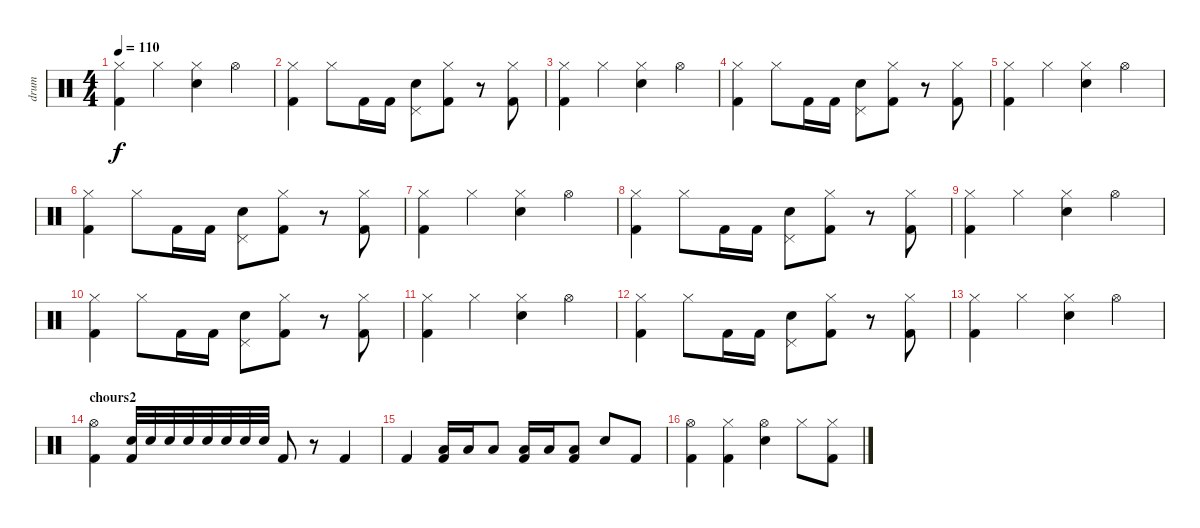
\track ("drum" "drum") {instrument percussion}
\staff {score}
\articulation defaults
\ts (4 4)
\tempo 110
\clef neutral
\ks c
("Hi-Hat (closed)" "Kick (hit) 2").4{dy f} "Hi-Hat (closed)".4 ("Hi-Hat (closed)" "Electric Snare (hit)").4 "Hi-Hat (open)".4 |
("Hi-Hat (closed)" "Kick (hit) 2").4 "Hi-Hat (closed)".8 "Kick (hit) 2".16 "Kick (hit) 2".16 ("Pedal Hi-Hat (hit)" "Electric Snare (hit)").8 ("Hi-Hat (closed)" "Kick (hit) 2").8 r.8 ("Hi-Hat (closed)" "Kick (hit) 2").8 |
("Hi-Hat (closed)" "Kick (hit) 2").4 "Hi-Hat (closed)".4 ("Hi-Hat (closed)" "Electric Snare (hit)").4 "Hi-Hat (open)".4 |
("Hi-Hat (closed)" "Kick (hit) 2").4 "Hi-Hat (closed)".8 "Kick (hit) 2".16 "Kick (hit) 2".16 ("Pedal Hi-Hat (hit)" "Electric Snare (hit)").8 ("Hi-Hat (closed)" "Kick (hit) 2").8 r.8 ("Hi-Hat (closed)" "Kick (hit) 2").8 |
("Hi-Hat (closed)" "Kick (hit) 2").4 "Hi-Hat (closed)".4 ("Hi-Hat (closed)" "Electric Snare (hit)").4 "Hi-Hat (open)".4 |
("Hi-Hat (closed)" "Kick (hit) 2").4 "Hi-Hat (closed)".8 "Kick (hit) 2".16 "Kick (hit) 2".16 ("Pedal Hi-Hat (hit)" "Electric Snare (hit)").8 ("Hi-Hat (closed)" "Kick (hit) 2").8 r.8 ("Hi-Hat (closed)" "Kick (hit) 2").8 |
("Hi-Hat (closed)" "Kick (hit) 2").4 "Hi-Hat (closed)".4 ("Hi-Hat (closed)" "Electric Snare (hit)").4 "Hi-Hat (open)".4 |
("Hi-Hat (closed)" "Kick (hit) 2").4 "Hi-Hat (closed)".8 "Kick (hit) 2".16 "Kick (hit) 2".16 ("Pedal Hi-Hat (hit)" "Electric Snare (hit)").8 ("Hi-Hat (closed)" "Kick (hit) 2").8 r.8 ("Hi-Hat (closed)" "Kick (hit) 2").8 |
("Hi-Hat (closed)" "Kick (hit) 2").4 "Hi-Hat (closed)".4 ("Hi-Hat (closed)" "Electric Snare (hit)").4 "Hi-Hat (open)".4 |
("Hi-Hat (closed)" "Kick (hit) 2").4 "Hi-Hat (closed)".8 "Kick (hit) 2".16 "Kick (hit) 2".16 ("Pedal Hi-Hat (hit)" "Electric Snare (hit)").8 ("Hi-Hat (closed)" "Kick (hit) 2").8 r.8 ("Hi-Hat (closed)" "Kick (hit) 2").8 |
("Hi-Hat (closed)" "Kick (hit) 2").4 "Hi-Hat (closed)".4 ("Hi-Hat (closed)" "Electric Snare (hit)").4 "Hi-Hat (open)".4 |
("Hi-Hat (closed)" "Kick (hit) 2").4 "Hi-Hat (closed)".8 "Kick (hit) 2".16 "Kick (hit) 2".16 ("Pedal Hi-Hat (hit)" "Electric Snare (hit)").8 ("Hi-Hat (closed)" "Kick (hit) 2").8 r.8 ("Hi-Hat (closed)" "Kick (hit) 2").8 |
("Hi-Hat (closed)" "Kick (hit) 2").4 "Hi-Hat (closed)".4 ("Hi-Hat (closed)" "Electric Snare (hit)").4 "Hi-Hat (open)".4 |
\section ("" "chours2")
("Hi-Hat (open)" "Kick (hit) 2").4 ("Electric Snare (hit)" "Kick (hit) 2").32 "Electric Snare (hit)".32 "Electric Snare (hit)".32 "Electric Snare (hit)".32 "Electric Snare (hit)".32 "Electric Snare (hit)".32 "Electric Snare (hit)".32 "Electric Snare (hit)".32 "Kick (hit) 2".8 r.8 "Kick (hit) 2".4 |
"Kick (hit) 2".4 ("Low Tom (hit)" "Kick (hit) 2").16 "Low Tom (hit)".16 "Low Tom (hit)".8 ("Low Floor Tom (hit)" "Kick (hit) 2").16 "Low Floor Tom (hit)".16 ("Low Floor Tom (hit)" "Kick (hit) 2").8 "Electric Snare (hit)".8 "Kick (hit) 2".8 |
("Hi-Hat (open)" "Kick (hit) 2").4 ("Hi-Hat (closed)" "Kick (hit) 2").4 ("Hi-Hat (open)" "Electric Snare (hit)").4 "Hi-Hat (closed)".8 ("Hi-Hat (closed)" "Kick (hit) 2").8
